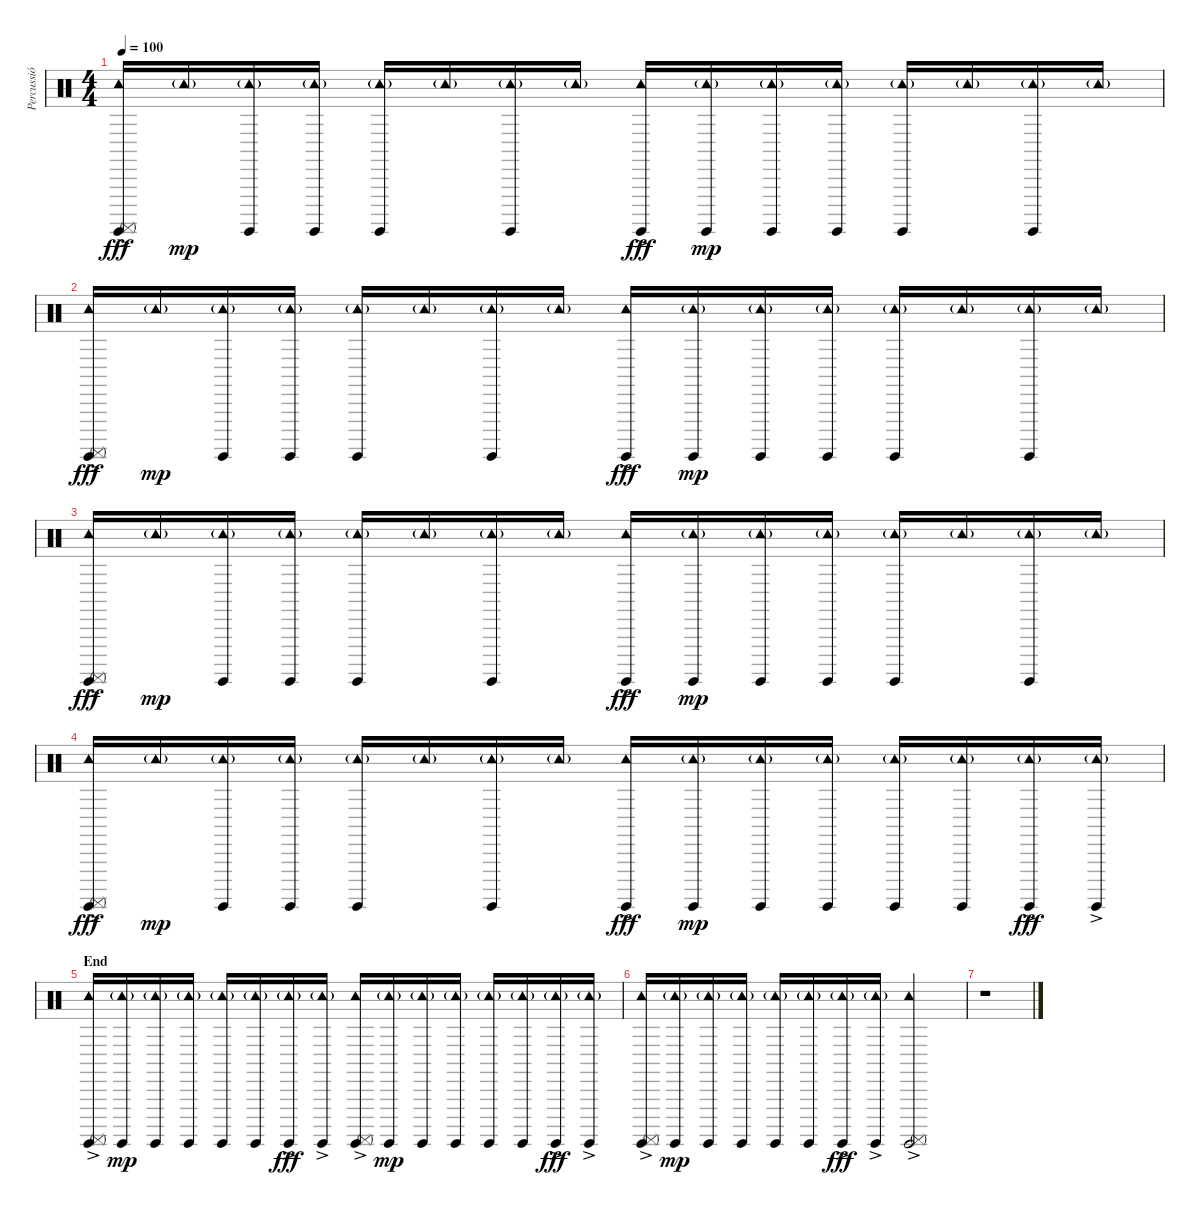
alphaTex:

\track ("Percussió" "Percussió") {instrument percussion}
\staff {score}
\articulation defaults
\ts (4 4)
\tempo 100
\clef neutral
\ks c
("Tambourine (hit)"{ac} "Surdo (hit)" "Surdo (mute)"{ac}).16{dy fff} "Tambourine (hit)"{g}.16{dy mp} ("Tambourine (hit)"{g} "Surdo (hit)").16 ("Tambourine (hit)"{g} "Surdo (hit)").16 ("Tambourine (hit)"{g} "Surdo (hit)").16 "Tambourine (hit)"{g}.16 ("Tambourine (hit)"{g} "Surdo (hit)").16 "Tambourine (hit)"{g}.16 ("Tambourine (hit)"{ac} "Surdo (hit)"{ac}).16{dy fff} ("Tambourine (hit)"{g} "Surdo (hit)").16{dy mp} ("Tambourine (hit)"{g} "Surdo (hit)").16 ("Tambourine (hit)"{g} "Surdo (hit)").16 ("Tambourine (hit)"{g} "Surdo (hit)").16 "Tambourine (hit)"{g}.16 ("Tambourine (hit)"{g} "Surdo (hit)").16 "Tambourine (hit)"{g}.16 |
("Tambourine (hit)"{ac} "Surdo (hit)" "Surdo (mute)"{ac}).16{dy fff} "Tambourine (hit)"{g}.16{dy mp} ("Tambourine (hit)"{g} "Surdo (hit)").16 ("Tambourine (hit)"{g} "Surdo (hit)").16 ("Tambourine (hit)"{g} "Surdo (hit)").16 "Tambourine (hit)"{g}.16 ("Tambourine (hit)"{g} "Surdo (hit)").16 "Tambourine (hit)"{g}.16 ("Tambourine (hit)"{ac} "Surdo (hit)"{ac}).16{dy fff} ("Tambourine (hit)"{g} "Surdo (hit)").16{dy mp} ("Tambourine (hit)"{g} "Surdo (hit)").16 ("Tambourine (hit)"{g} "Surdo (hit)").16 ("Tambourine (hit)"{g} "Surdo (hit)").16 "Tambourine (hit)"{g}.16 ("Tambourine (hit)"{g} "Surdo (hit)").16 "Tambourine (hit)"{g}.16 |
("Tambourine (hit)"{ac} "Surdo (hit)" "Surdo (mute)"{ac}).16{dy fff} "Tambourine (hit)"{g}.16{dy mp} ("Tambourine (hit)"{g} "Surdo (hit)").16 ("Tambourine (hit)"{g} "Surdo (hit)").16 ("Tambourine (hit)"{g} "Surdo (hit)").16 "Tambourine (hit)"{g}.16 ("Tambourine (hit)"{g} "Surdo (hit)").16 "Tambourine (hit)"{g}.16 ("Tambourine (hit)"{ac} "Surdo (hit)"{ac}).16{dy fff} ("Tambourine (hit)"{g} "Surdo (hit)").16{dy mp} ("Tambourine (hit)"{g} "Surdo (hit)").16 ("Tambourine (hit)"{g} "Surdo (hit)").16 ("Tambourine (hit)"{g} "Surdo (hit)").16 "Tambourine (hit)"{g}.16 ("Tambourine (hit)"{g} "Surdo (hit)").16 "Tambourine (hit)"{g}.16 |
("Tambourine (hit)"{ac} "Surdo (hit)" "Surdo (mute)"{ac}).16{dy fff} "Tambourine (hit)"{g}.16{dy mp} ("Tambourine (hit)"{g} "Surdo (hit)").16 ("Tambourine (hit)"{g} "Surdo (hit)").16 ("Tambourine (hit)"{g} "Surdo (hit)").16 "Tambourine (hit)"{g}.16 ("Tambourine (hit)"{g} "Surdo (hit)").16 "Tambourine (hit)"{g}.16 ("Tambourine (hit)"{ac} "Surdo (hit)"{ac}).16{dy fff} ("Tambourine (hit)"{g} "Surdo (hit)").16{dy mp} ("Tambourine (hit)"{g} "Surdo (hit)").16 ("Tambourine (hit)"{g} "Surdo (hit)").16 ("Tambourine (hit)"{g} "Surdo (hit)").16 ("Tambourine (hit)"{g} "Surdo (hit)").16 ("Tambourine (hit)"{g} "Surdo (hit)"{ac}).16{dy fff} ("Tambourine (hit)"{g} "Surdo (hit)"{ac}).16 |
\section ("" "End")
("Tambourine (hit)"{ac} "Surdo (hit)" "Surdo (mute)"{ac}).16 ("Tambourine (hit)"{g} "Surdo (hit)").16{dy mp} ("Tambourine (hit)"{g} "Surdo (hit)").16 ("Tambourine (hit)"{g} "Surdo (hit)").16 ("Tambourine (hit)"{g} "Surdo (hit)").16 ("Tambourine (hit)"{g} "Surdo (hit)").16 ("Tambourine (hit)"{g} "Surdo (hit)"{ac}).16{dy fff} ("Tambourine (hit)"{g} "Surdo (hit)"{ac}).16 ("Tambourine (hit)"{ac} "Surdo (hit)"{ac} "Surdo (mute)"{ac}).16 ("Tambourine (hit)"{g} "Surdo (hit)").16{dy mp} ("Tambourine (hit)"{g} "Surdo (hit)").16 ("Tambourine (hit)"{g} "Surdo (hit)").16 ("Tambourine (hit)"{g} "Surdo (hit)").16 ("Tambourine (hit)"{g} "Surdo (hit)").16 ("Tambourine (hit)"{g} "Surdo (hit)"{ac}).16{dy fff} ("Tambourine (hit)"{g} "Surdo (hit)"{ac}).16 |
("Tambourine (hit)"{ac} "Surdo (hit)" "Surdo (mute)"{ac}).16 ("Tambourine (hit)"{g} "Surdo (hit)").16{dy mp} ("Tambourine (hit)"{g} "Surdo (hit)").16 ("Tambourine (hit)"{g} "Surdo (hit)").16 ("Tambourine (hit)"{g} "Surdo (hit)").16 ("Tambourine (hit)"{g} "Surdo (hit)").16 ("Tambourine (hit)"{g} "Surdo (hit)"{ac}).16{dy fff} ("Tambourine (hit)"{g} "Surdo (hit)"{ac}).16 ("Tambourine (hit)"{ac} "Surdo (hit)"{ac} "Surdo (mute)"{ac}).2 |
r.1
